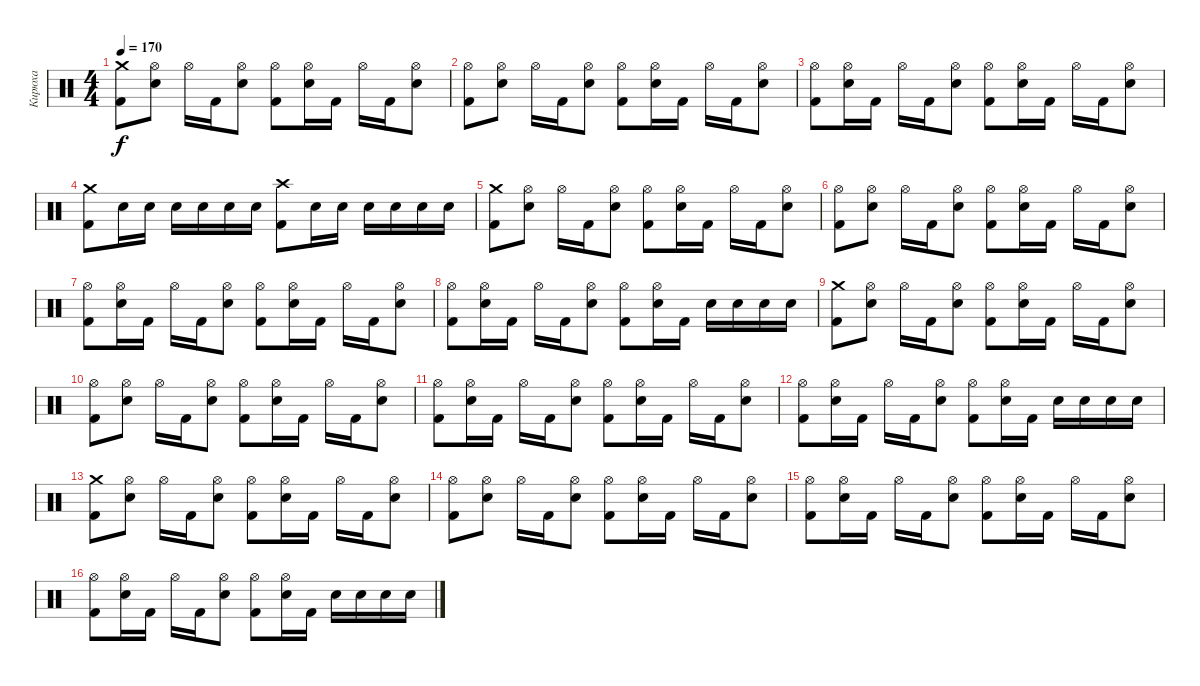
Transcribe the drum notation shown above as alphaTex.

\track ("Кирюха" "Кирюха") {instrument percussion}
\staff {score}
\articulation defaults
\ts (4 4)
\tempo 170
\clef neutral
\ks c
("Kick (hit) 2" "Crash medium (hit)").8{dy f} ("Electric Snare (hit)" "Hi-Hat (open)").8 "Hi-Hat (open)".16 "Kick (hit) 2".16 ("Electric Snare (hit)" "Hi-Hat (open)").8 ("Kick (hit) 2" "Hi-Hat (open)").8 ("Electric Snare (hit)" "Hi-Hat (open)").16 "Kick (hit) 2".16 "Hi-Hat (open)".16 "Kick (hit) 2".16 ("Electric Snare (hit)" "Hi-Hat (open)").8 |
("Kick (hit) 2" "Hi-Hat (open)").8 ("Electric Snare (hit)" "Hi-Hat (open)").8 "Hi-Hat (open)".16 "Kick (hit) 2".16 ("Electric Snare (hit)" "Hi-Hat (open)").8 ("Kick (hit) 2" "Hi-Hat (open)").8 ("Electric Snare (hit)" "Hi-Hat (open)").16 "Kick (hit) 2".16 "Hi-Hat (open)".16 "Kick (hit) 2".16 ("Electric Snare (hit)" "Hi-Hat (open)").8 |
("Kick (hit) 2" "Hi-Hat (open)").8 ("Electric Snare (hit)" "Hi-Hat (open)").16 "Kick (hit) 2".16 "Hi-Hat (open)".16 "Kick (hit) 2".16 ("Electric Snare (hit)" "Hi-Hat (open)").8 ("Kick (hit) 2" "Hi-Hat (open)").8 ("Electric Snare (hit)" "Hi-Hat (open)").16 "Kick (hit) 2".16 "Hi-Hat (open)".16 "Kick (hit) 2".16 ("Electric Snare (hit)" "Hi-Hat (open)").8 |
("Kick (hit) 2" "Crash medium (hit)").8 "Electric Snare (hit)".16 "Electric Snare (hit)".16 "Electric Snare (hit)".16 "Electric Snare (hit)".16 "Electric Snare (hit)".16 "Electric Snare (hit)".16 ("Kick (hit) 2" "Crash high (hit)").8 "Electric Snare (hit)".16 "Electric Snare (hit)".16 "Electric Snare (hit)".16 "Electric Snare (hit)".16 "Electric Snare (hit)".16 "Electric Snare (hit)".16 |
("Kick (hit) 2" "Crash medium (hit)").8 ("Electric Snare (hit)" "Hi-Hat (open)").8 "Hi-Hat (open)".16 "Kick (hit) 2".16 ("Electric Snare (hit)" "Hi-Hat (open)").8 ("Kick (hit) 2" "Hi-Hat (open)").8 ("Electric Snare (hit)" "Hi-Hat (open)").16 "Kick (hit) 2".16 "Hi-Hat (open)".16 "Kick (hit) 2".16 ("Electric Snare (hit)" "Hi-Hat (open)").8 |
("Kick (hit) 2" "Hi-Hat (open)").8 ("Electric Snare (hit)" "Hi-Hat (open)").8 "Hi-Hat (open)".16 "Kick (hit) 2".16 ("Electric Snare (hit)" "Hi-Hat (open)").8 ("Kick (hit) 2" "Hi-Hat (open)").8 ("Electric Snare (hit)" "Hi-Hat (open)").16 "Kick (hit) 2".16 "Hi-Hat (open)".16 "Kick (hit) 2".16 ("Electric Snare (hit)" "Hi-Hat (open)").8 |
("Kick (hit) 2" "Hi-Hat (open)").8 ("Electric Snare (hit)" "Hi-Hat (open)").16 "Kick (hit) 2".16 "Hi-Hat (open)".16 "Kick (hit) 2".16 ("Electric Snare (hit)" "Hi-Hat (open)").8 ("Kick (hit) 2" "Hi-Hat (open)").8 ("Electric Snare (hit)" "Hi-Hat (open)").16 "Kick (hit) 2".16 "Hi-Hat (open)".16 "Kick (hit) 2".16 ("Electric Snare (hit)" "Hi-Hat (open)").8 |
("Kick (hit) 2" "Hi-Hat (open)").8 ("Electric Snare (hit)" "Hi-Hat (open)").16 "Kick (hit) 2".16 "Hi-Hat (open)".16 "Kick (hit) 2".16 ("Electric Snare (hit)" "Hi-Hat (open)").8 ("Kick (hit) 2" "Hi-Hat (open)").8 ("Electric Snare (hit)" "Hi-Hat (open)").16 "Kick (hit) 2".16 "Electric Snare (hit)".16 "Electric Snare (hit)".16 "Electric Snare (hit)".16 "Electric Snare (hit)".16 |
("Kick (hit) 2" "Crash medium (hit)").8 ("Electric Snare (hit)" "Hi-Hat (open)").8 "Hi-Hat (open)".16 "Kick (hit) 2".16 ("Electric Snare (hit)" "Hi-Hat (open)").8 ("Kick (hit) 2" "Hi-Hat (open)").8 ("Electric Snare (hit)" "Hi-Hat (open)").16 "Kick (hit) 2".16 "Hi-Hat (open)".16 "Kick (hit) 2".16 ("Electric Snare (hit)" "Hi-Hat (open)").8 |
("Kick (hit) 2" "Hi-Hat (open)").8 ("Electric Snare (hit)" "Hi-Hat (open)").8 "Hi-Hat (open)".16 "Kick (hit) 2".16 ("Electric Snare (hit)" "Hi-Hat (open)").8 ("Kick (hit) 2" "Hi-Hat (open)").8 ("Electric Snare (hit)" "Hi-Hat (open)").16 "Kick (hit) 2".16 "Hi-Hat (open)".16 "Kick (hit) 2".16 ("Electric Snare (hit)" "Hi-Hat (open)").8 |
("Kick (hit) 2" "Hi-Hat (open)").8 ("Electric Snare (hit)" "Hi-Hat (open)").16 "Kick (hit) 2".16 "Hi-Hat (open)".16 "Kick (hit) 2".16 ("Electric Snare (hit)" "Hi-Hat (open)").8 ("Kick (hit) 2" "Hi-Hat (open)").8 ("Electric Snare (hit)" "Hi-Hat (open)").16 "Kick (hit) 2".16 "Hi-Hat (open)".16 "Kick (hit) 2".16 ("Electric Snare (hit)" "Hi-Hat (open)").8 |
("Kick (hit) 2" "Hi-Hat (open)").8 ("Electric Snare (hit)" "Hi-Hat (open)").16 "Kick (hit) 2".16 "Hi-Hat (open)".16 "Kick (hit) 2".16 ("Electric Snare (hit)" "Hi-Hat (open)").8 ("Kick (hit) 2" "Hi-Hat (open)").8 ("Electric Snare (hit)" "Hi-Hat (open)").16 "Kick (hit) 2".16 "Electric Snare (hit)".16 "Electric Snare (hit)".16 "Electric Snare (hit)".16 "Electric Snare (hit)".16 |
("Kick (hit) 2" "Crash medium (hit)").8 ("Electric Snare (hit)" "Hi-Hat (open)").8 "Hi-Hat (open)".16 "Kick (hit) 2".16 ("Electric Snare (hit)" "Hi-Hat (open)").8 ("Kick (hit) 2" "Hi-Hat (open)").8 ("Electric Snare (hit)" "Hi-Hat (open)").16 "Kick (hit) 2".16 "Hi-Hat (open)".16 "Kick (hit) 2".16 ("Electric Snare (hit)" "Hi-Hat (open)").8 |
("Kick (hit) 2" "Hi-Hat (open)").8 ("Electric Snare (hit)" "Hi-Hat (open)").8 "Hi-Hat (open)".16 "Kick (hit) 2".16 ("Electric Snare (hit)" "Hi-Hat (open)").8 ("Kick (hit) 2" "Hi-Hat (open)").8 ("Electric Snare (hit)" "Hi-Hat (open)").16 "Kick (hit) 2".16 "Hi-Hat (open)".16 "Kick (hit) 2".16 ("Electric Snare (hit)" "Hi-Hat (open)").8 |
("Kick (hit) 2" "Hi-Hat (open)").8 ("Electric Snare (hit)" "Hi-Hat (open)").16 "Kick (hit) 2".16 "Hi-Hat (open)".16 "Kick (hit) 2".16 ("Electric Snare (hit)" "Hi-Hat (open)").8 ("Kick (hit) 2" "Hi-Hat (open)").8 ("Electric Snare (hit)" "Hi-Hat (open)").16 "Kick (hit) 2".16 "Hi-Hat (open)".16 "Kick (hit) 2".16 ("Electric Snare (hit)" "Hi-Hat (open)").8 |
("Kick (hit) 2" "Hi-Hat (open)").8 ("Electric Snare (hit)" "Hi-Hat (open)").16 "Kick (hit) 2".16 "Hi-Hat (open)".16 "Kick (hit) 2".16 ("Electric Snare (hit)" "Hi-Hat (open)").8 ("Kick (hit) 2" "Hi-Hat (open)").8 ("Electric Snare (hit)" "Hi-Hat (open)").16 "Kick (hit) 2".16 "Electric Snare (hit)".16 "Electric Snare (hit)".16 "Electric Snare (hit)".16 "Electric Snare (hit)".16
